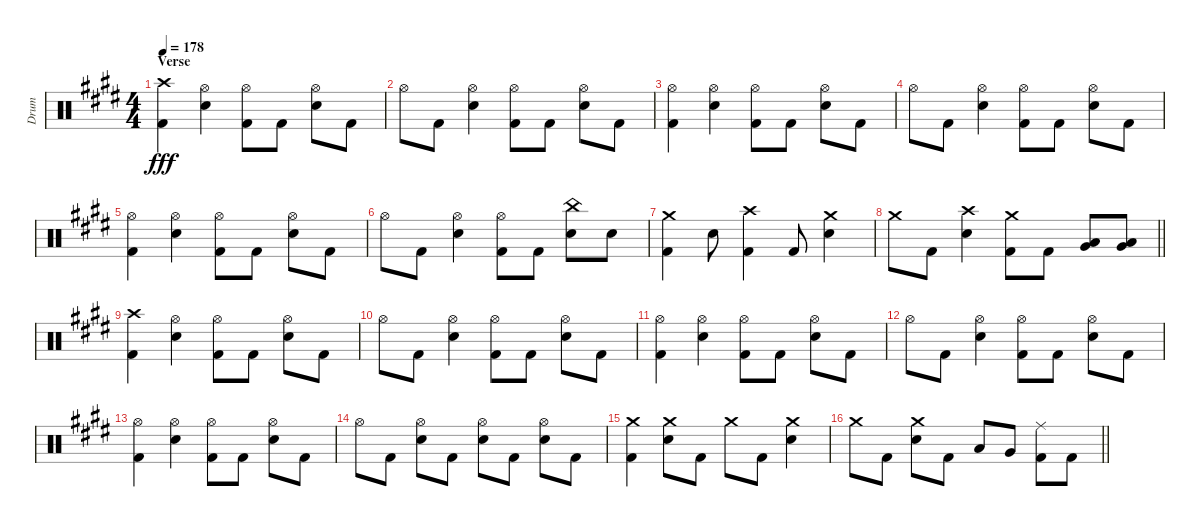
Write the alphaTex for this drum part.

\track ("Drum" "Drum") {instrument percussion}
\staff {score}
\articulation defaults
\ts (4 4)
\section ("" "Verse")
\tempo 178
\clef neutral
\ks e
("Crash high (hit)" "Kick (hit) 2").4{dy fff} ("Hi-Hat (open)" "Electric Snare (hit)").4 ("Hi-Hat (open)" "Kick (hit) 2").8 "Kick (hit) 2".8 ("Hi-Hat (open)" "Electric Snare (hit)").8 "Kick (hit) 2".8 |
"Hi-Hat (open)".8 "Kick (hit) 2".8 ("Hi-Hat (open)" "Electric Snare (hit)").4 ("Hi-Hat (open)" "Kick (hit) 2").8 "Kick (hit) 2".8 ("Hi-Hat (open)" "Electric Snare (hit)").8 "Kick (hit) 2".8 |
("Hi-Hat (open)" "Kick (hit) 2").4 ("Hi-Hat (open)" "Electric Snare (hit)").4 ("Hi-Hat (open)" "Kick (hit) 2").8 "Kick (hit) 2".8 ("Hi-Hat (open)" "Electric Snare (hit)").8 "Kick (hit) 2".8 |
"Hi-Hat (open)".8 "Kick (hit) 2".8 ("Hi-Hat (open)" "Electric Snare (hit)").4 ("Hi-Hat (open)" "Kick (hit) 2").8 "Kick (hit) 2".8 ("Hi-Hat (open)" "Electric Snare (hit)").8 "Kick (hit) 2".8 |
("Hi-Hat (open)" "Kick (hit) 2").4 ("Hi-Hat (open)" "Electric Snare (hit)").4 ("Hi-Hat (open)" "Kick (hit) 2").8 "Kick (hit) 2".8 ("Hi-Hat (open)" "Electric Snare (hit)").8 "Kick (hit) 2".8 |
"Hi-Hat (open)".8 "Kick (hit) 2".8 ("Hi-Hat (open)" "Electric Snare (hit)").4 ("Hi-Hat (open)" "Kick (hit) 2").8 "Kick (hit) 2".8 ("China (hit)" "Electric Snare (hit)").8 "Electric Snare (hit)".8 |
("Crash medium (hit)" "Kick (hit) 2").4 "Electric Snare (hit)".8 ("Crash high (hit)" "Kick (hit) 2").4 "Kick (hit) 2".8 ("Crash medium (hit)" "Electric Snare (hit)").4 |
\barLineRight lightlight "Crash medium (hit)".8 "Kick (hit) 2".8
("Crash high (hit)" "Electric Snare (hit)").4 ("Crash medium (hit)" "Kick (hit) 2").8 "Kick (hit) 2".8 ("Low Tom (hit)" "Very Low Tom (hit)").8 ("Low Tom (hit)" "Very Low Tom (hit)").8 |
("Crash high (hit)" "Kick (hit) 2").4 ("Hi-Hat (open)" "Electric Snare (hit)").4 ("Hi-Hat (open)" "Kick (hit) 2").8 "Kick (hit) 2".8 ("Hi-Hat (open)" "Electric Snare (hit)").8 "Kick (hit) 2".8 |
"Hi-Hat (open)".8 "Kick (hit) 2".8 ("Hi-Hat (open)" "Electric Snare (hit)").4 ("Hi-Hat (open)" "Kick (hit) 2").8 "Kick (hit) 2".8 ("Hi-Hat (open)" "Electric Snare (hit)").8 "Kick (hit) 2".8 |
("Hi-Hat (open)" "Kick (hit) 2").4 ("Hi-Hat (open)" "Electric Snare (hit)").4 ("Hi-Hat (open)" "Kick (hit) 2").8 "Kick (hit) 2".8 ("Hi-Hat (open)" "Electric Snare (hit)").8 "Kick (hit) 2".8 |
"Hi-Hat (open)".8 "Kick (hit) 2".8 ("Hi-Hat (open)" "Electric Snare (hit)").4 ("Hi-Hat (open)" "Kick (hit) 2").8 "Kick (hit) 2".8 ("Hi-Hat (open)" "Electric Snare (hit)").8 "Kick (hit) 2".8 |
("Hi-Hat (open)" "Kick (hit) 2").4 ("Hi-Hat (open)" "Electric Snare (hit)").4 ("Hi-Hat (open)" "Kick (hit) 2").8 "Kick (hit) 2".8 ("Hi-Hat (open)" "Electric Snare (hit)").8 "Kick (hit) 2".8 |
"Hi-Hat (open)".8 "Kick (hit) 2".8 ("Hi-Hat (open)" "Electric Snare (hit)").8 "Kick (hit) 2".8 ("Hi-Hat (open)" "Electric Snare (hit)").8 "Kick (hit) 2".8 ("Hi-Hat (open)" "Electric Snare (hit)").8 "Kick (hit) 2".8 |
("Crash medium (hit)" "Kick (hit) 2").4 ("Crash medium (hit)" "Electric Snare (hit)").8 "Kick (hit) 2".8 "Crash medium (hit)".8 "Kick (hit) 2".8 ("Crash medium (hit)" "Electric Snare (hit)").4 |
\barLineRight lightlight "Crash medium (hit)".8 "Kick (hit) 2".8
("Crash medium (hit)" "Electric Snare (hit)").8 "Kick (hit) 2".8 "Low Tom (hit)".8 "Very Low Tom (hit)".8 ("Ride (middle)" "Kick (hit) 2").8 "Kick (hit) 2".8
